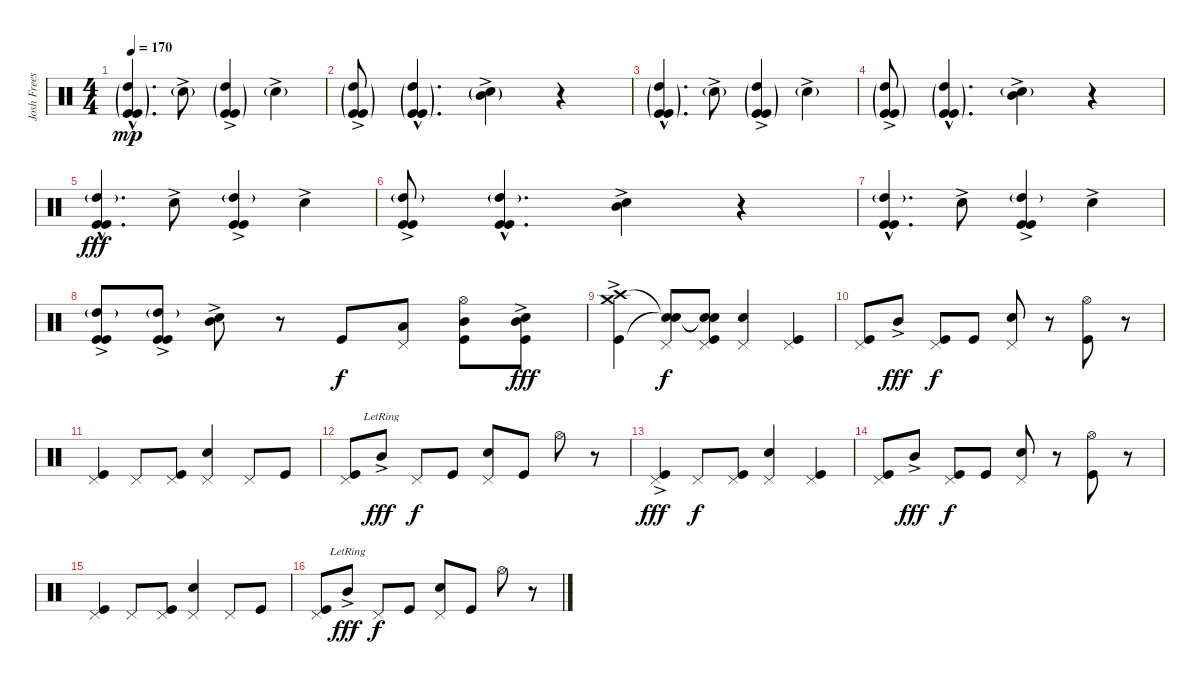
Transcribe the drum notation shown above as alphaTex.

\track ("Josh Freese - Drums" "Josh Frees") {instrument percussion}
\staff {score}
\articulation defaults
\ts (4 4)
\tempo 170
\clef neutral
\ks c
("High Tom (hit)"{g hac} "Kick (hit)"{g hac} "Kick (hit)"{g hac}).4{d dy mp} "Electric Snare (hit)"{g ac}.8 ("High Tom (hit)"{g} "Kick (hit)"{g ac} "Kick (hit)"{g ac}).4 "Electric Snare (hit)"{g ac}.4 |
("High Tom (hit)"{g} "Kick (hit)"{g ac} "Kick (hit)"{g ac}).8 ("High Tom (hit)"{g hac} "Kick (hit)"{g hac} "Kick (hit)"{g hac}).4{d} ("Mid Tom (hit)"{g ac} "Electric Snare (hit)"{g ac}).4 r.4 |
("High Tom (hit)"{g hac} "Kick (hit)"{g hac} "Kick (hit)"{g hac}).4{d} "Electric Snare (hit)"{g ac}.8 ("High Tom (hit)"{g} "Kick (hit)"{g ac} "Kick (hit)"{g ac}).4 "Electric Snare (hit)"{g ac}.4 |
("High Tom (hit)"{g} "Kick (hit)"{g ac} "Kick (hit)"{g ac}).8 ("High Tom (hit)"{g hac} "Kick (hit)"{g hac} "Kick (hit)"{g hac}).4{d} ("Mid Tom (hit)"{ac} "Electric Snare (hit)"{g ac}).4 r.4 |
("High Tom (hit)"{g hac} "Kick (hit)"{hac} "Kick (hit)"{hac}).4{d dy fff volume 13} "Electric Snare (hit)"{ac}.8 ("High Tom (hit)"{g} "Kick (hit)"{ac} "Kick (hit)"{ac}).4 "Electric Snare (hit)"{ac}.4 |
("High Tom (hit)"{g} "Kick (hit)"{ac} "Kick (hit)"{ac}).8 ("High Tom (hit)"{g hac} "Kick (hit)"{hac} "Kick (hit)"{hac}).4{d} ("Mid Tom (hit)"{ac} "Electric Snare (hit)"{ac}).4 r.4 |
("High Tom (hit)"{g hac} "Kick (hit)"{hac} "Kick (hit)"{hac}).4{d} "Electric Snare (hit)"{ac}.8 ("High Tom (hit)"{g} "Kick (hit)"{ac} "Kick (hit)"{ac}).4 "Electric Snare (hit)"{ac}.4 |
("High Tom (hit)"{g} "Kick (hit)"{ac} "Kick (hit)"{ac}).8 ("High Tom (hit)"{g} "Kick (hit)"{ac} "Kick (hit)"{ac}).8 ("Mid Tom (hit)"{ac} "Electric Snare (hit)"{ac}).8 r.8 "Kick (hit)".8{dy f} ("Pedal Hi-Hat (hit)" "Low Tom (hit)").8 ("Hi-Hat (open)"{pm} "Mid Tom (hit)" "Kick (hit)").8 ("Mid Tom (hit)"{ac} "Electric Snare (hit)"{ac} "Kick (hit)").8{dy fff} |
("Crash high (hit)"{ac} "Crash medium (hit)"{ac} "Kick (hit)"{ac}).4 ("Snare (hit)"{t} "Pedal Hi-Hat (hit)" "Snare (hit)"{t}).8{dy f} ("Snare (hit)"{t} "Pedal Hi-Hat (hit)" "Snare (hit)"{t} "Kick (hit)").8 ("Pedal Hi-Hat (hit)" "Electric Snare (hit)").4 ("Pedal Hi-Hat (hit)" "Kick (hit)").4 |
("Pedal Hi-Hat (hit)" "Kick (hit)").8 "Mid Tom (hit)"{ac}.8{dy fff} ("Pedal Hi-Hat (hit)" "Kick (hit)").8{dy f} "Kick (hit)".8 ("Pedal Hi-Hat (hit)" "Electric Snare (hit)").8 r.8 ("Hi-Hat (open)" "Kick (hit)").8 r.8 |
("Pedal Hi-Hat (hit)" "Kick (hit)").4 "Pedal Hi-Hat (hit)".8 ("Pedal Hi-Hat (hit)" "Kick (hit)").8 ("Pedal Hi-Hat (hit)" "Electric Snare (hit)").4 "Pedal Hi-Hat (hit)".8 "Kick (hit)".8 |
("Pedal Hi-Hat (hit)" "Kick (hit)").8 "Mid Tom (hit)"{ac lr}.8{dy fff} "Pedal Hi-Hat (hit)".8{dy f} "Kick (hit)".8 ("Pedal Hi-Hat (hit)" "Electric Snare (hit)").8 "Kick (hit)".8 "Hi-Hat (open)".8 r.8 |
("Pedal Hi-Hat (hit)" "Kick (hit)"{ac}).4{dy fff} "Pedal Hi-Hat (hit)".8{dy f} ("Pedal Hi-Hat (hit)" "Kick (hit)").8 ("Pedal Hi-Hat (hit)" "Electric Snare (hit)").4 ("Pedal Hi-Hat (hit)" "Kick (hit)").4 |
("Pedal Hi-Hat (hit)" "Kick (hit)").8 "Mid Tom (hit)"{ac}.8{dy fff} ("Pedal Hi-Hat (hit)" "Kick (hit)").8{dy f} "Kick (hit)".8 ("Pedal Hi-Hat (hit)" "Electric Snare (hit)").8 r.8 ("Hi-Hat (open)" "Kick (hit)").8 r.8 |
("Pedal Hi-Hat (hit)" "Kick (hit)").4 "Pedal Hi-Hat (hit)".8 ("Pedal Hi-Hat (hit)" "Kick (hit)").8 ("Pedal Hi-Hat (hit)" "Electric Snare (hit)").4 "Pedal Hi-Hat (hit)".8 "Kick (hit)".8 |
("Pedal Hi-Hat (hit)" "Kick (hit)").8 "Mid Tom (hit)"{ac lr}.8{dy fff} "Pedal Hi-Hat (hit)".8{dy f} "Kick (hit)".8 ("Pedal Hi-Hat (hit)" "Electric Snare (hit)").8 "Kick (hit)".8 "Hi-Hat (open)".8 r.8
